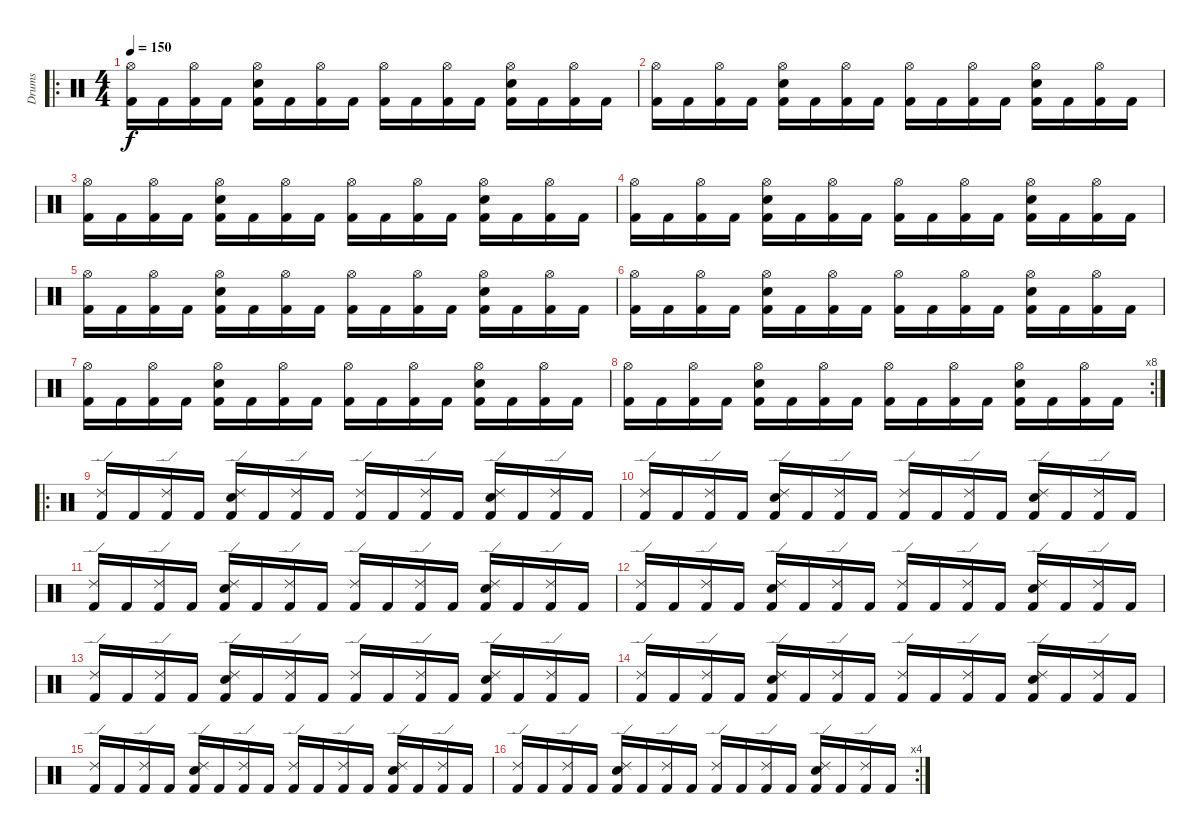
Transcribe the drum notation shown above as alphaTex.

\track ("Drums" "Drums") {instrument percussion}
\staff {score}
\articulation defaults
\ro
\ts (4 4)
\tempo 150
\clef neutral
\ks c
("Hi-Hat (open)" "Kick (hit) 2").16{dy f} "Kick (hit) 2".16 ("Hi-Hat (open)" "Kick (hit) 2").16 "Kick (hit) 2".16 ("Hi-Hat (open)" "Electric Snare (hit)" "Kick (hit) 2").16 "Kick (hit) 2".16 ("Hi-Hat (open)" "Kick (hit) 2").16 "Kick (hit) 2".16 ("Hi-Hat (open)" "Kick (hit) 2").16 "Kick (hit) 2".16 ("Hi-Hat (open)" "Kick (hit) 2").16 "Kick (hit) 2".16 ("Hi-Hat (open)" "Electric Snare (hit)" "Kick (hit) 2").16 "Kick (hit) 2".16 ("Hi-Hat (open)" "Kick (hit) 2").16 "Kick (hit) 2".16 |
("Hi-Hat (open)" "Kick (hit) 2").16 "Kick (hit) 2".16 ("Hi-Hat (open)" "Kick (hit) 2").16 "Kick (hit) 2".16 ("Hi-Hat (open)" "Electric Snare (hit)" "Kick (hit) 2").16 "Kick (hit) 2".16 ("Hi-Hat (open)" "Kick (hit) 2").16 "Kick (hit) 2".16 ("Hi-Hat (open)" "Kick (hit) 2").16 "Kick (hit) 2".16 ("Hi-Hat (open)" "Kick (hit) 2").16 "Kick (hit) 2".16 ("Hi-Hat (open)" "Electric Snare (hit)" "Kick (hit) 2").16 "Kick (hit) 2".16 ("Hi-Hat (open)" "Kick (hit) 2").16 "Kick (hit) 2".16 |
("Hi-Hat (open)" "Kick (hit) 2").16 "Kick (hit) 2".16 ("Hi-Hat (open)" "Kick (hit) 2").16 "Kick (hit) 2".16 ("Hi-Hat (open)" "Electric Snare (hit)" "Kick (hit) 2").16 "Kick (hit) 2".16 ("Hi-Hat (open)" "Kick (hit) 2").16 "Kick (hit) 2".16 ("Hi-Hat (open)" "Kick (hit) 2").16 "Kick (hit) 2".16 ("Hi-Hat (open)" "Kick (hit) 2").16 "Kick (hit) 2".16 ("Hi-Hat (open)" "Electric Snare (hit)" "Kick (hit) 2").16 "Kick (hit) 2".16 ("Hi-Hat (open)" "Kick (hit) 2").16 "Kick (hit) 2".16 |
("Hi-Hat (open)" "Kick (hit) 2").16 "Kick (hit) 2".16 ("Hi-Hat (open)" "Kick (hit) 2").16 "Kick (hit) 2".16 ("Hi-Hat (open)" "Electric Snare (hit)" "Kick (hit) 2").16 "Kick (hit) 2".16 ("Hi-Hat (open)" "Kick (hit) 2").16 "Kick (hit) 2".16 ("Hi-Hat (open)" "Kick (hit) 2").16 "Kick (hit) 2".16 ("Hi-Hat (open)" "Kick (hit) 2").16 "Kick (hit) 2".16 ("Hi-Hat (open)" "Electric Snare (hit)" "Kick (hit) 2").16 "Kick (hit) 2".16 ("Hi-Hat (open)" "Kick (hit) 2").16 "Kick (hit) 2".16 |
("Hi-Hat (open)" "Kick (hit) 2").16 "Kick (hit) 2".16 ("Hi-Hat (open)" "Kick (hit) 2").16 "Kick (hit) 2".16 ("Hi-Hat (open)" "Electric Snare (hit)" "Kick (hit) 2").16 "Kick (hit) 2".16 ("Hi-Hat (open)" "Kick (hit) 2").16 "Kick (hit) 2".16 ("Hi-Hat (open)" "Kick (hit) 2").16 "Kick (hit) 2".16 ("Hi-Hat (open)" "Kick (hit) 2").16 "Kick (hit) 2".16 ("Hi-Hat (open)" "Electric Snare (hit)" "Kick (hit) 2").16 "Kick (hit) 2".16 ("Hi-Hat (open)" "Kick (hit) 2").16 "Kick (hit) 2".16 |
("Hi-Hat (open)" "Kick (hit) 2").16 "Kick (hit) 2".16 ("Hi-Hat (open)" "Kick (hit) 2").16 "Kick (hit) 2".16 ("Hi-Hat (open)" "Electric Snare (hit)" "Kick (hit) 2").16 "Kick (hit) 2".16 ("Hi-Hat (open)" "Kick (hit) 2").16 "Kick (hit) 2".16 ("Hi-Hat (open)" "Kick (hit) 2").16 "Kick (hit) 2".16 ("Hi-Hat (open)" "Kick (hit) 2").16 "Kick (hit) 2".16 ("Hi-Hat (open)" "Electric Snare (hit)" "Kick (hit) 2").16 "Kick (hit) 2".16 ("Hi-Hat (open)" "Kick (hit) 2").16 "Kick (hit) 2".16 |
("Hi-Hat (open)" "Kick (hit) 2").16 "Kick (hit) 2".16 ("Hi-Hat (open)" "Kick (hit) 2").16 "Kick (hit) 2".16 ("Hi-Hat (open)" "Electric Snare (hit)" "Kick (hit) 2").16 "Kick (hit) 2".16 ("Hi-Hat (open)" "Kick (hit) 2").16 "Kick (hit) 2".16 ("Hi-Hat (open)" "Kick (hit) 2").16 "Kick (hit) 2".16 ("Hi-Hat (open)" "Kick (hit) 2").16 "Kick (hit) 2".16 ("Hi-Hat (open)" "Electric Snare (hit)" "Kick (hit) 2").16 "Kick (hit) 2".16 ("Hi-Hat (open)" "Kick (hit) 2").16 "Kick (hit) 2".16 |
\rc 8
("Hi-Hat (open)" "Kick (hit) 2").16 "Kick (hit) 2".16 ("Hi-Hat (open)" "Kick (hit) 2").16 "Kick (hit) 2".16 ("Hi-Hat (open)" "Electric Snare (hit)" "Kick (hit) 2").16 "Kick (hit) 2".16 ("Hi-Hat (open)" "Kick (hit) 2").16 "Kick (hit) 2".16 ("Hi-Hat (open)" "Kick (hit) 2").16 "Kick (hit) 2".16 ("Hi-Hat (open)" "Kick (hit) 2").16 "Kick (hit) 2".16 ("Hi-Hat (open)" "Electric Snare (hit)" "Kick (hit) 2").16 "Kick (hit) 2".16 ("Hi-Hat (open)" "Kick (hit) 2").16 "Kick (hit) 2".16 |
\ro
("Ride (edge) 2" "Kick (hit) 2").16 "Kick (hit) 2".16 ("Ride (edge) 2" "Kick (hit) 2").16 "Kick (hit) 2".16 ("Ride (edge) 2" "Electric Snare (hit)" "Kick (hit) 2").16 "Kick (hit) 2".16 ("Ride (edge) 2" "Kick (hit) 2").16 "Kick (hit) 2".16 ("Ride (edge) 2" "Kick (hit) 2").16 "Kick (hit) 2".16 ("Ride (edge) 2" "Kick (hit) 2").16 "Kick (hit) 2".16 ("Ride (edge) 2" "Electric Snare (hit)" "Kick (hit) 2").16 "Kick (hit) 2".16 ("Ride (edge) 2" "Kick (hit) 2").16 "Kick (hit) 2".16 |
("Ride (edge) 2" "Kick (hit) 2").16 "Kick (hit) 2".16 ("Ride (edge) 2" "Kick (hit) 2").16 "Kick (hit) 2".16 ("Ride (edge) 2" "Electric Snare (hit)" "Kick (hit) 2").16 "Kick (hit) 2".16 ("Ride (edge) 2" "Kick (hit) 2").16 "Kick (hit) 2".16 ("Ride (edge) 2" "Kick (hit) 2").16 "Kick (hit) 2".16 ("Ride (edge) 2" "Kick (hit) 2").16 "Kick (hit) 2".16 ("Ride (edge) 2" "Electric Snare (hit)" "Kick (hit) 2").16 "Kick (hit) 2".16 ("Ride (edge) 2" "Kick (hit) 2").16 "Kick (hit) 2".16 |
("Ride (edge) 2" "Kick (hit) 2").16 "Kick (hit) 2".16 ("Ride (edge) 2" "Kick (hit) 2").16 "Kick (hit) 2".16 ("Ride (edge) 2" "Electric Snare (hit)" "Kick (hit) 2").16 "Kick (hit) 2".16 ("Ride (edge) 2" "Kick (hit) 2").16 "Kick (hit) 2".16 ("Ride (edge) 2" "Kick (hit) 2").16 "Kick (hit) 2".16 ("Ride (edge) 2" "Kick (hit) 2").16 "Kick (hit) 2".16 ("Ride (edge) 2" "Electric Snare (hit)" "Kick (hit) 2").16 "Kick (hit) 2".16 ("Ride (edge) 2" "Kick (hit) 2").16 "Kick (hit) 2".16 |
("Ride (edge) 2" "Kick (hit) 2").16 "Kick (hit) 2".16 ("Ride (edge) 2" "Kick (hit) 2").16 "Kick (hit) 2".16 ("Ride (edge) 2" "Electric Snare (hit)" "Kick (hit) 2").16 "Kick (hit) 2".16 ("Ride (edge) 2" "Kick (hit) 2").16 "Kick (hit) 2".16 ("Ride (edge) 2" "Kick (hit) 2").16 "Kick (hit) 2".16 ("Ride (edge) 2" "Kick (hit) 2").16 "Kick (hit) 2".16 ("Ride (edge) 2" "Electric Snare (hit)" "Kick (hit) 2").16 "Kick (hit) 2".16 ("Ride (edge) 2" "Kick (hit) 2").16 "Kick (hit) 2".16 |
("Ride (edge) 2" "Kick (hit) 2").16 "Kick (hit) 2".16 ("Ride (edge) 2" "Kick (hit) 2").16 "Kick (hit) 2".16 ("Ride (edge) 2" "Electric Snare (hit)" "Kick (hit) 2").16 "Kick (hit) 2".16 ("Ride (edge) 2" "Kick (hit) 2").16 "Kick (hit) 2".16 ("Ride (edge) 2" "Kick (hit) 2").16 "Kick (hit) 2".16 ("Ride (edge) 2" "Kick (hit) 2").16 "Kick (hit) 2".16 ("Ride (edge) 2" "Electric Snare (hit)" "Kick (hit) 2").16 "Kick (hit) 2".16 ("Ride (edge) 2" "Kick (hit) 2").16 "Kick (hit) 2".16 |
("Ride (edge) 2" "Kick (hit) 2").16 "Kick (hit) 2".16 ("Ride (edge) 2" "Kick (hit) 2").16 "Kick (hit) 2".16 ("Ride (edge) 2" "Electric Snare (hit)" "Kick (hit) 2").16 "Kick (hit) 2".16 ("Ride (edge) 2" "Kick (hit) 2").16 "Kick (hit) 2".16 ("Ride (edge) 2" "Kick (hit) 2").16 "Kick (hit) 2".16 ("Ride (edge) 2" "Kick (hit) 2").16 "Kick (hit) 2".16 ("Ride (edge) 2" "Electric Snare (hit)" "Kick (hit) 2").16 "Kick (hit) 2".16 ("Ride (edge) 2" "Kick (hit) 2").16 "Kick (hit) 2".16 |
("Ride (edge) 2" "Kick (hit) 2").16 "Kick (hit) 2".16 ("Ride (edge) 2" "Kick (hit) 2").16 "Kick (hit) 2".16 ("Ride (edge) 2" "Electric Snare (hit)" "Kick (hit) 2").16 "Kick (hit) 2".16 ("Ride (edge) 2" "Kick (hit) 2").16 "Kick (hit) 2".16 ("Ride (edge) 2" "Kick (hit) 2").16 "Kick (hit) 2".16 ("Ride (edge) 2" "Kick (hit) 2").16 "Kick (hit) 2".16 ("Ride (edge) 2" "Electric Snare (hit)" "Kick (hit) 2").16 "Kick (hit) 2".16 ("Ride (edge) 2" "Kick (hit) 2").16 "Kick (hit) 2".16 |
\rc 4
("Ride (edge) 2" "Kick (hit) 2").16 "Kick (hit) 2".16 ("Ride (edge) 2" "Kick (hit) 2").16 "Kick (hit) 2".16 ("Ride (edge) 2" "Electric Snare (hit)" "Kick (hit) 2").16 "Kick (hit) 2".16 ("Ride (edge) 2" "Kick (hit) 2").16 "Kick (hit) 2".16 ("Ride (edge) 2" "Kick (hit) 2").16 "Kick (hit) 2".16 ("Ride (edge) 2" "Kick (hit) 2").16 "Kick (hit) 2".16 ("Ride (edge) 2" "Electric Snare (hit)" "Kick (hit) 2").16 "Kick (hit) 2".16 ("Ride (edge) 2" "Kick (hit) 2").16 "Kick (hit) 2".16
